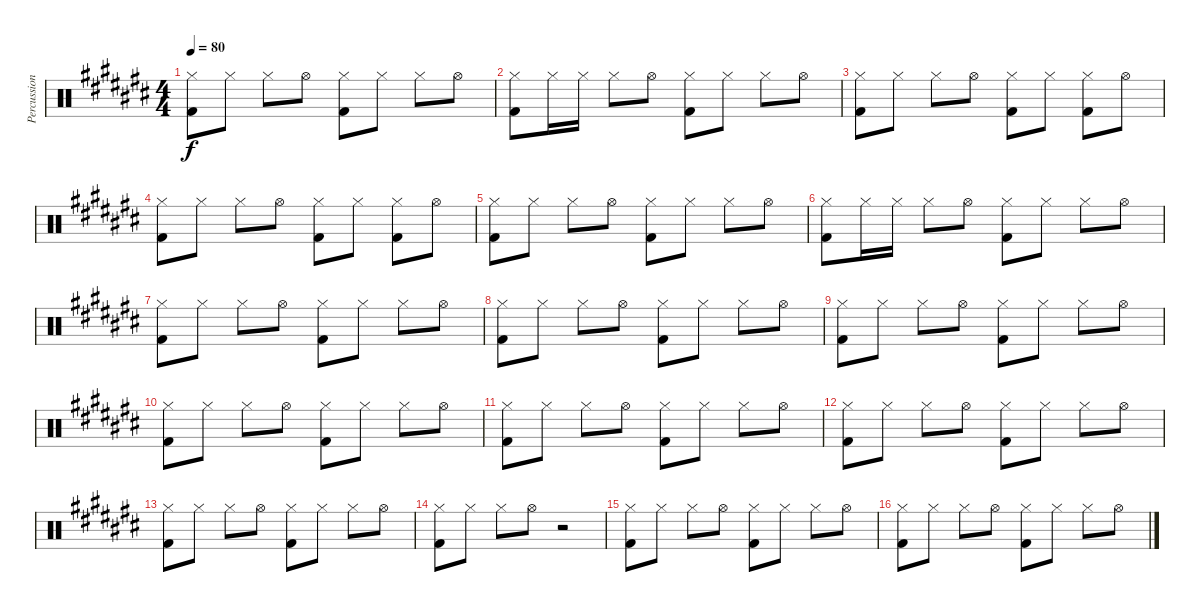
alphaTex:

\track ("Percussion" "Percussion") {instrument percussion}
\staff {score}
\articulation defaults
\ts (4 4)
\tempo 80
\clef neutral
\ks c#
("Kick (hit) 2" "Hi-Hat (closed)").8{dy f} "Hi-Hat (closed)".8 "Hi-Hat (closed)".8 "Hi-Hat (open)".8 ("Kick (hit) 2" "Hi-Hat (closed)").8 "Hi-Hat (closed)".8 "Hi-Hat (closed)".8 "Hi-Hat (open)".8 |
("Kick (hit) 2" "Hi-Hat (closed)").8 "Hi-Hat (closed)".16 "Hi-Hat (closed)".16 "Hi-Hat (closed)".8 "Hi-Hat (open)".8 ("Kick (hit) 2" "Hi-Hat (closed)").8 "Hi-Hat (closed)".8 "Hi-Hat (closed)".8 "Hi-Hat (open)".8 |
("Kick (hit) 2" "Hi-Hat (closed)").8 "Hi-Hat (closed)".8 "Hi-Hat (closed)".8 "Hi-Hat (open)".8 ("Kick (hit) 2" "Hi-Hat (closed)").8 "Hi-Hat (closed)".8 ("Kick (hit) 2" "Hi-Hat (closed)").8 "Hi-Hat (open)".8 |
("Kick (hit) 2" "Hi-Hat (closed)").8 "Hi-Hat (closed)".8 "Hi-Hat (closed)".8 "Hi-Hat (open)".8 ("Kick (hit) 2" "Hi-Hat (closed)").8 "Hi-Hat (closed)".8 ("Kick (hit) 2" "Hi-Hat (closed)").8 "Hi-Hat (open)".8 |
("Kick (hit) 2" "Hi-Hat (closed)").8 "Hi-Hat (closed)".8 "Hi-Hat (closed)".8 "Hi-Hat (open)".8 ("Kick (hit) 2" "Hi-Hat (closed)").8 "Hi-Hat (closed)".8 "Hi-Hat (closed)".8 "Hi-Hat (open)".8 |
("Kick (hit) 2" "Hi-Hat (closed)").8 "Hi-Hat (closed)".16 "Hi-Hat (closed)".16 "Hi-Hat (closed)".8 "Hi-Hat (open)".8 ("Kick (hit) 2" "Hi-Hat (closed)").8 "Hi-Hat (closed)".8 "Hi-Hat (closed)".8 "Hi-Hat (open)".8 |
("Kick (hit) 2" "Hi-Hat (closed)").8 "Hi-Hat (closed)".8 "Hi-Hat (closed)".8 "Hi-Hat (open)".8 ("Kick (hit) 2" "Hi-Hat (closed)").8 "Hi-Hat (closed)".8 "Hi-Hat (closed)".8 "Hi-Hat (open)".8 |
("Kick (hit) 2" "Hi-Hat (closed)").8 "Hi-Hat (closed)".8 "Hi-Hat (closed)".8 "Hi-Hat (open)".8 ("Kick (hit) 2" "Hi-Hat (closed)").8 "Hi-Hat (closed)".8 "Hi-Hat (closed)".8 "Hi-Hat (open)".8 |
("Kick (hit) 2" "Hi-Hat (closed)").8 "Hi-Hat (closed)".8 "Hi-Hat (closed)".8 "Hi-Hat (open)".8 ("Kick (hit) 2" "Hi-Hat (closed)").8 "Hi-Hat (closed)".8 "Hi-Hat (closed)".8 "Hi-Hat (open)".8 |
("Kick (hit) 2" "Hi-Hat (closed)").8 "Hi-Hat (closed)".8 "Hi-Hat (closed)".8 "Hi-Hat (open)".8 ("Kick (hit) 2" "Hi-Hat (closed)").8 "Hi-Hat (closed)".8 "Hi-Hat (closed)".8 "Hi-Hat (open)".8 |
("Kick (hit) 2" "Hi-Hat (closed)").8 "Hi-Hat (closed)".8 "Hi-Hat (closed)".8 "Hi-Hat (open)".8 ("Kick (hit) 2" "Hi-Hat (closed)").8 "Hi-Hat (closed)".8 "Hi-Hat (closed)".8 "Hi-Hat (open)".8 |
("Kick (hit) 2" "Hi-Hat (closed)").8 "Hi-Hat (closed)".8 "Hi-Hat (closed)".8 "Hi-Hat (open)".8 ("Kick (hit) 2" "Hi-Hat (closed)").8 "Hi-Hat (closed)".8 "Hi-Hat (closed)".8 "Hi-Hat (open)".8 |
("Kick (hit) 2" "Hi-Hat (closed)").8 "Hi-Hat (closed)".8 "Hi-Hat (closed)".8 "Hi-Hat (open)".8 ("Kick (hit) 2" "Hi-Hat (closed)").8 "Hi-Hat (closed)".8 "Hi-Hat (closed)".8 "Hi-Hat (open)".8 |
("Kick (hit) 2" "Hi-Hat (closed)").8 "Hi-Hat (closed)".8 "Hi-Hat (closed)".8 "Hi-Hat (open)".8 r.2 |
("Kick (hit) 2" "Hi-Hat (closed)").8 "Hi-Hat (closed)".8 "Hi-Hat (closed)".8 "Hi-Hat (open)".8 ("Kick (hit) 2" "Hi-Hat (closed)").8 "Hi-Hat (closed)".8 "Hi-Hat (closed)".8 "Hi-Hat (open)".8 |
("Kick (hit) 2" "Hi-Hat (closed)").8 "Hi-Hat (closed)".8 "Hi-Hat (closed)".8 "Hi-Hat (open)".8 ("Kick (hit) 2" "Hi-Hat (closed)").8 "Hi-Hat (closed)".8 "Hi-Hat (closed)".8 "Hi-Hat (open)".8
